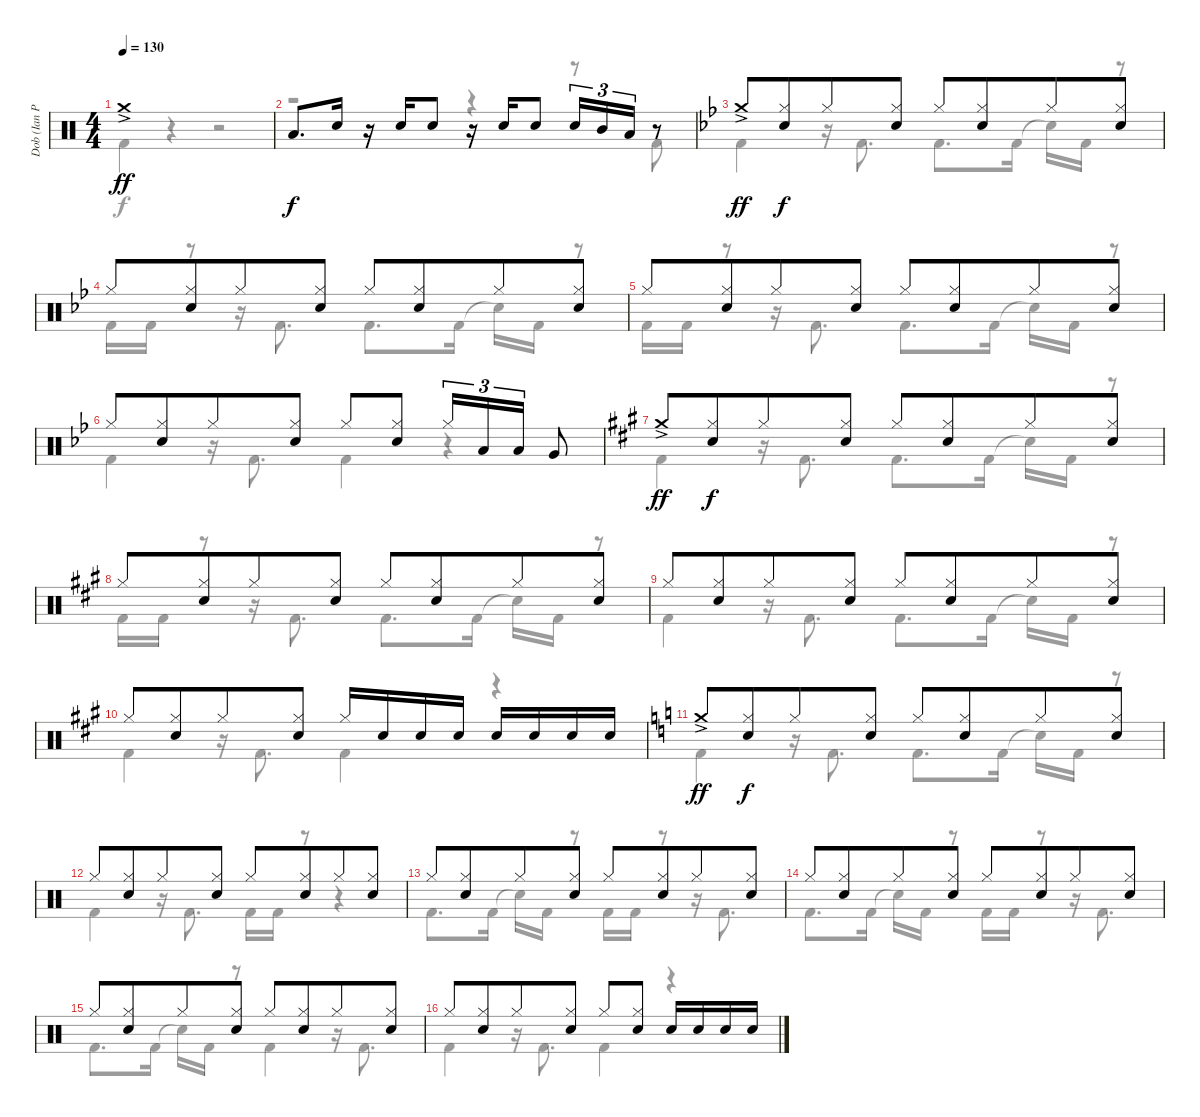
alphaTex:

\track ("Dob (Ian Paice)" "Dob (Ian P") {instrument percussion}
\staff {score}
\articulation defaults
\voice
\ts (4 4)
\tempo 130
\clef neutral
\ks c "Crash medium (hit)"{ac}.1{dy ff}
|
"Low Tom (hit)".8{d dy f} "Electric Snare (hit)".16 r.16 "Electric Snare (hit)".16 "Electric Snare (hit)".8 r.16 "Electric Snare (hit)".16 "Electric Snare (hit)".8 "Electric Snare (hit)".16{tu (3 2)} "Mid Tom (hit)".16{tu (3 2)} "Low Tom (hit)".16{tu (3 2)} r.8 |
\ks bb "Crash medium (hit)"{ac}.8{dy ff}
("Hi-Hat (closed)" "Electric Snare (hit)").8{dy f beam merge} "Hi-Hat (closed)".8 ("Hi-Hat (closed)" "Electric Snare (hit)").8 "Hi-Hat (closed)".8 ("Hi-Hat (closed)" "Electric Snare (hit)").8{beam merge} "Hi-Hat (closed)".8 ("Hi-Hat (closed)" "Electric Snare (hit)").8 |
"Hi-Hat (closed)".8 ("Hi-Hat (closed)" "Electric Snare (hit)").8{beam merge} "Hi-Hat (closed)".8 ("Hi-Hat (closed)" "Electric Snare (hit)").8 "Hi-Hat (closed)".8 ("Hi-Hat (closed)" "Electric Snare (hit)").8{beam merge} "Hi-Hat (closed)".8 ("Hi-Hat (closed)" "Electric Snare (hit)").8 |
"Hi-Hat (closed)".8 ("Hi-Hat (closed)" "Electric Snare (hit)").8{beam merge} "Hi-Hat (closed)".8 ("Hi-Hat (closed)" "Electric Snare (hit)").8 "Hi-Hat (closed)".8 ("Hi-Hat (closed)" "Electric Snare (hit)").8{beam merge} "Hi-Hat (closed)".8 ("Hi-Hat (closed)" "Electric Snare (hit)").8 |
"Hi-Hat (closed)".8 ("Hi-Hat (closed)" "Electric Snare (hit)").8{beam merge} "Hi-Hat (closed)".8 ("Hi-Hat (closed)" "Electric Snare (hit)").8 "Hi-Hat (closed)".8 ("Hi-Hat (closed)" "Electric Snare (hit)").8 "Hi-Hat (closed)".16{tu (3 2)} "Low Tom (hit)".16{tu (3 2)} "Low Tom (hit)".16{tu (3 2)} "Very Low Tom (hit)".8 |
\ks a "Crash medium (hit)"{ac}.8{dy ff}
("Hi-Hat (closed)" "Electric Snare (hit)").8{dy f beam merge} "Hi-Hat (closed)".8 ("Hi-Hat (closed)" "Electric Snare (hit)").8 "Hi-Hat (closed)".8 ("Hi-Hat (closed)" "Electric Snare (hit)").8{beam merge} "Hi-Hat (closed)".8 ("Hi-Hat (closed)" "Electric Snare (hit)").8 |
"Hi-Hat (closed)".8 ("Hi-Hat (closed)" "Electric Snare (hit)").8{beam merge} "Hi-Hat (closed)".8 ("Hi-Hat (closed)" "Electric Snare (hit)").8 "Hi-Hat (closed)".8 ("Hi-Hat (closed)" "Electric Snare (hit)").8{beam merge} "Hi-Hat (closed)".8 ("Hi-Hat (closed)" "Electric Snare (hit)").8 |
"Hi-Hat (closed)".8 ("Hi-Hat (closed)" "Electric Snare (hit)").8{beam merge} "Hi-Hat (closed)".8 ("Hi-Hat (closed)" "Electric Snare (hit)").8 "Hi-Hat (closed)".8 ("Hi-Hat (closed)" "Electric Snare (hit)").8{beam merge} "Hi-Hat (closed)".8 ("Hi-Hat (closed)" "Electric Snare (hit)").8 |
"Hi-Hat (closed)".8 ("Hi-Hat (closed)" "Electric Snare (hit)").8{beam merge} "Hi-Hat (closed)".8 ("Hi-Hat (closed)" "Electric Snare (hit)").8 "Hi-Hat (closed)".16 "Electric Snare (hit)".16 "Electric Snare (hit)".16 "Electric Snare (hit)".16 "Electric Snare (hit)".16 "Electric Snare (hit)".16 "Electric Snare (hit)".16 "Electric Snare (hit)".16 |
\ks c "Crash medium (hit)"{ac}.8{dy ff}
("Hi-Hat (closed)" "Electric Snare (hit)").8{dy f beam merge} "Hi-Hat (closed)".8 ("Hi-Hat (closed)" "Electric Snare (hit)").8 "Hi-Hat (closed)".8 ("Hi-Hat (closed)" "Electric Snare (hit)").8{beam merge} "Hi-Hat (closed)".8 ("Hi-Hat (closed)" "Electric Snare (hit)").8 |
"Hi-Hat (closed)".8 ("Hi-Hat (closed)" "Electric Snare (hit)").8{beam merge} "Hi-Hat (closed)".8 ("Hi-Hat (closed)" "Electric Snare (hit)").8 "Hi-Hat (closed)".8 ("Hi-Hat (closed)" "Electric Snare (hit)").8{beam merge} "Hi-Hat (closed)".8 ("Hi-Hat (closed)" "Electric Snare (hit)").8 |
"Hi-Hat (closed)".8 ("Hi-Hat (closed)" "Electric Snare (hit)").8{beam merge} "Hi-Hat (closed)".8 ("Hi-Hat (closed)" "Electric Snare (hit)").8 "Hi-Hat (closed)".8 ("Hi-Hat (closed)" "Electric Snare (hit)").8{beam merge} "Hi-Hat (closed)".8 ("Hi-Hat (closed)" "Electric Snare (hit)").8 |
"Hi-Hat (closed)".8 ("Hi-Hat (closed)" "Electric Snare (hit)").8{beam merge} "Hi-Hat (closed)".8 ("Hi-Hat (closed)" "Electric Snare (hit)").8 "Hi-Hat (closed)".8 ("Hi-Hat (closed)" "Electric Snare (hit)").8{beam merge} "Hi-Hat (closed)".8 ("Hi-Hat (closed)" "Electric Snare (hit)").8 |
"Hi-Hat (closed)".8 ("Hi-Hat (closed)" "Electric Snare (hit)").8{beam merge} "Hi-Hat (closed)".8 ("Hi-Hat (closed)" "Electric Snare (hit)").8 "Hi-Hat (closed)".8 ("Hi-Hat (closed)" "Electric Snare (hit)").8{beam merge} "Hi-Hat (closed)".8 ("Hi-Hat (closed)" "Electric Snare (hit)").8 |
"Hi-Hat (closed)".8 ("Hi-Hat (closed)" "Electric Snare (hit)").8{beam merge} "Hi-Hat (closed)".8 ("Hi-Hat (closed)" "Electric Snare (hit)").8 "Hi-Hat (closed)".8 ("Hi-Hat (closed)" "Electric Snare (hit)").8 "Electric Snare (hit)".16 "Electric Snare (hit)".16 "Electric Snare (hit)".16 "Electric Snare (hit)".16
\voice
\clef neutral
\ottava regular
\simile none
\ks c "Kick (hit) 2".4{dy f}
r.4 r.2 |
r.2 r.4 r.8 "Kick (hit) 2".8 |
\ks bb "Kick (hit) 2".4
r.16 "Kick (hit) 2".8{d} "Kick (hit) 2".8{d} "Kick (hit) 2".16 "Snare (hit)"{t}.16 "Kick (hit) 2".16 r.8 |
"Kick (hit) 2".16 "Kick (hit) 2".16 r.8 r.16 "Kick (hit) 2".8{d} "Kick (hit) 2".8{d} "Kick (hit) 2".16 "Snare (hit)"{t}.16 "Kick (hit) 2".16 r.8 |
"Kick (hit) 2".16 "Kick (hit) 2".16 r.8 r.16 "Kick (hit) 2".8{d} "Kick (hit) 2".8{d} "Kick (hit) 2".16 "Snare (hit)"{t}.16 "Kick (hit) 2".16 r.8 |
"Kick (hit) 2".4 r.16 "Kick (hit) 2".8{d} "Kick (hit) 2".4 r.4 |
\ks a "Kick (hit) 2".4
r.16 "Kick (hit) 2".8{d} "Kick (hit) 2".8{d} "Kick (hit) 2".16 "Snare (hit)"{t}.16 "Kick (hit) 2".16 r.8 |
"Kick (hit) 2".16 "Kick (hit) 2".16 r.8 r.16 "Kick (hit) 2".8{d} "Kick (hit) 2".8{d} "Kick (hit) 2".16 "Snare (hit)"{t}.16 "Kick (hit) 2".16 r.8 |
"Kick (hit) 2".4 r.16 "Kick (hit) 2".8{d} "Kick (hit) 2".8{d} "Kick (hit) 2".16 "Snare (hit)"{t}.16 "Kick (hit) 2".16 r.8 |
"Kick (hit) 2".4 r.16 "Kick (hit) 2".8{d} "Kick (hit) 2".4 r.4 |
\ks c "Kick (hit) 2".4
r.16 "Kick (hit) 2".8{d} "Kick (hit) 2".8{d} "Kick (hit) 2".16 "Snare (hit)"{t}.16 "Kick (hit) 2".16 r.8 |
"Kick (hit) 2".4 r.16 "Kick (hit) 2".8{d} "Kick (hit) 2".16 "Kick (hit) 2".16 r.8 r.4 |
"Kick (hit) 2".8{d} "Kick (hit) 2".16 "Snare (hit)"{t}.16 "Kick (hit) 2".16 r.8 "Kick (hit) 2".16 "Kick (hit) 2".16 r.8 r.16 "Kick (hit) 2".8{d} |
"Kick (hit) 2".8{d} "Kick (hit) 2".16 "Snare (hit)"{t}.16 "Kick (hit) 2".16 r.8 "Kick (hit) 2".16 "Kick (hit) 2".16 r.8 r.16 "Kick (hit) 2".8{d} |
"Kick (hit) 2".8{d} "Kick (hit) 2".16 "Snare (hit)"{t}.16 "Kick (hit) 2".16 r.8 "Kick (hit) 2".4 r.16 "Kick (hit) 2".8{d} |
"Kick (hit) 2".4 r.16 "Kick (hit) 2".8{d} "Kick (hit) 2".4 r.4
